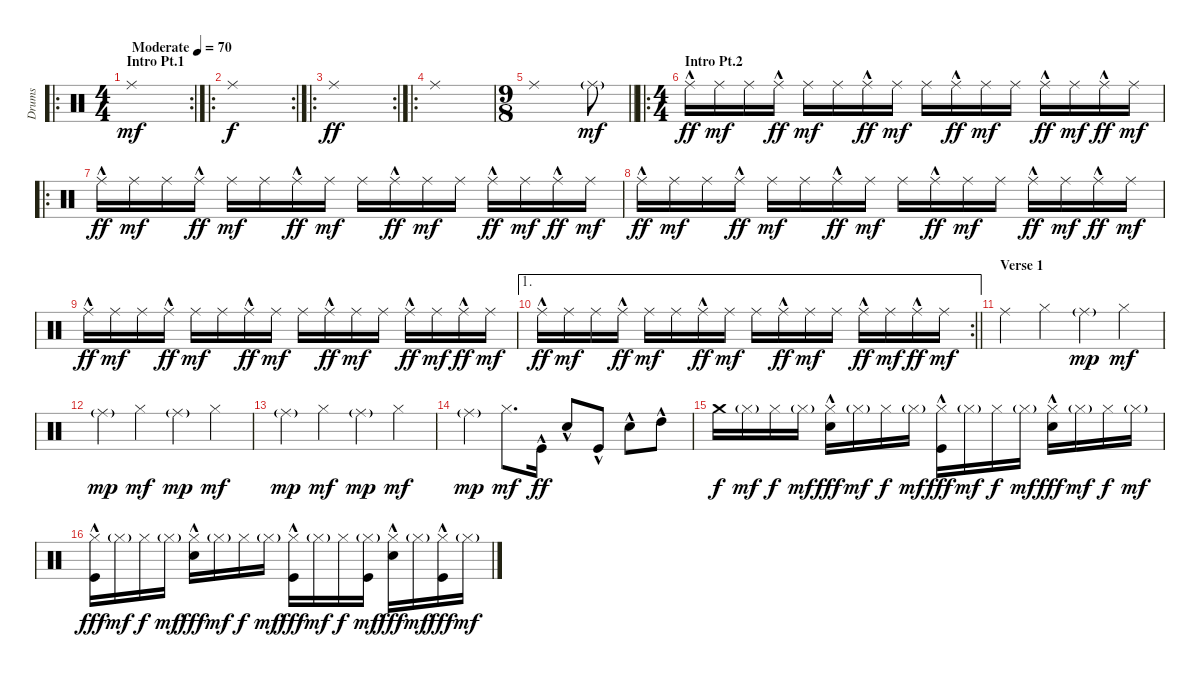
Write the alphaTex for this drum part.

\track ("Drums" "Drums") {instrument percussion}
\staff {score}
\articulation defaults
\ro
\rc 2
\ts (4 4)
\section ("" "Intro Pt.1")
\tempo (70 "Moderate")
\clef neutral
\ks c "Ride (middle)".1{dy mf}
|
\ro
\rc 2 "Ride (middle)".1{dy f}
|
\ro
\rc 2 "Ride (middle)".1{dy ff}
|
\ro "Ride (middle)".1
|
\ts (9 8)
\barLineRight lightlight "Ride (middle)".1 "Ride (middle)"{g}.8{dy mf}
|
\ro
\ts (4 4)
\section ("" "Intro Pt.2")
"Ride (middle)"{hac}.16{dy ff} "Ride (middle)".16{dy mf} "Ride (middle)".16 "Ride (middle)"{hac}.16{dy ff} "Ride (middle)".16{dy mf} "Ride (middle)".16 "Ride (middle)"{hac}.16{dy ff} "Ride (middle)".16{dy mf} "Ride (middle)".16 "Ride (middle)"{hac}.16{dy ff} "Ride (middle)".16{dy mf} "Ride (middle)".16 "Ride (middle)"{hac}.16{dy ff} "Ride (middle)".16{dy mf} "Ride (middle)"{hac}.16{dy ff} "Ride (middle)".16{dy mf} |
\ro "Ride (middle)"{hac}.16{dy ff} "Ride (middle)".16{dy mf} "Ride (middle)".16 "Ride (middle)"{hac}.16{dy ff} "Ride (middle)".16{dy mf} "Ride (middle)".16 "Ride (middle)"{hac}.16{dy ff} "Ride (middle)".16{dy mf} "Ride (middle)".16 "Ride (middle)"{hac}.16{dy ff} "Ride (middle)".16{dy mf} "Ride (middle)".16 "Ride (middle)"{hac}.16{dy ff} "Ride (middle)".16{dy mf} "Ride (middle)"{hac}.16{dy ff} "Ride (middle)".16{dy mf}
|
"Ride (middle)"{hac}.16{dy ff} "Ride (middle)".16{dy mf} "Ride (middle)".16 "Ride (middle)"{hac}.16{dy ff} "Ride (middle)".16{dy mf} "Ride (middle)".16 "Ride (middle)"{hac}.16{dy ff} "Ride (middle)".16{dy mf} "Ride (middle)".16 "Ride (middle)"{hac}.16{dy ff} "Ride (middle)".16{dy mf} "Ride (middle)".16 "Ride (middle)"{hac}.16{dy ff} "Ride (middle)".16{dy mf} "Ride (middle)"{hac}.16{dy ff} "Ride (middle)".16{dy mf} |
"Ride (middle)"{hac}.16{dy ff} "Ride (middle)".16{dy mf} "Ride (middle)".16 "Ride (middle)"{hac}.16{dy ff} "Ride (middle)".16{dy mf} "Ride (middle)".16 "Ride (middle)"{hac}.16{dy ff} "Ride (middle)".16{dy mf} "Ride (middle)".16 "Ride (middle)"{hac}.16{dy ff} "Ride (middle)".16{dy mf} "Ride (middle)".16 "Ride (middle)"{hac}.16{dy ff} "Ride (middle)".16{dy mf} "Ride (middle)"{hac}.16{dy ff} "Ride (middle)".16{dy mf} |
\ae 1
\rc 2
\barLineRight lightlight "Ride (middle)"{hac}.16{dy ff} "Ride (middle)".16{dy mf} "Ride (middle)".16 "Ride (middle)"{hac}.16{dy ff} "Ride (middle)".16{dy mf} "Ride (middle)".16 "Ride (middle)"{hac}.16{dy ff} "Ride (middle)".16{dy mf} "Ride (middle)".16 "Ride (middle)"{hac}.16{dy ff} "Ride (middle)".16{dy mf} "Ride (middle)".16 "Ride (middle)"{hac}.16{dy ff} "Ride (middle)".16{dy mf} "Ride (middle)"{hac}.16{dy ff} "Ride (middle)".16{dy mf}
|
\section ("" "Verse 1")
"Ride (middle)".4 "Hi-Hat (closed)".4 "Ride (middle)"{g}.4{dy mp} "Hi-Hat (closed)".4{dy mf} |
"Ride (middle)"{g}.4{dy mp} "Hi-Hat (closed)".4{dy mf} "Ride (middle)"{g}.4{dy mp} "Hi-Hat (closed)".4{dy mf} |
"Ride (middle)"{g}.4{dy mp} "Hi-Hat (closed)".4{dy mf} "Ride (middle)"{g}.4{dy mp} "Hi-Hat (closed)".4{dy mf} |
"Ride (middle)"{g}.4{dy mp} "Hi-Hat (closed)".8{d dy mf} "Kick (hit)"{hac}.16{dy ff volume 16} "Electric Snare (hit)"{hac}.8 "Kick (hit)"{hac}.8 "Electric Snare (hit)"{hac}.8 "High Tom (hit)"{hac}.8 |
"Crash medium (hit)".16{dy f volume 14} "Hi-Hat (closed)"{g}.16{dy mf} "Hi-Hat (closed)".16{dy f} "Hi-Hat (closed)"{g}.16{dy mf} ("Hi-Hat (closed)"{hac} "Electric Snare (hit)").16{dy fff} "Hi-Hat (closed)"{g}.16{dy mf} "Hi-Hat (closed)".16{dy f} "Hi-Hat (closed)"{g}.16{dy mf} ("Hi-Hat (closed)"{hac} "Kick (hit)").16{dy fff} "Hi-Hat (closed)"{g}.16{dy mf} "Hi-Hat (closed)".16{dy f} "Hi-Hat (closed)"{g}.16{dy mf} ("Hi-Hat (closed)"{hac} "Electric Snare (hit)").16{dy fff} "Hi-Hat (closed)"{g}.16{dy mf} "Hi-Hat (closed)".16{dy f} "Hi-Hat (closed)"{g}.16{dy mf} |
("Hi-Hat (closed)"{hac} "Kick (hit)").16{dy fff} "Hi-Hat (closed)"{g}.16{dy mf} "Hi-Hat (closed)".16{dy f} "Hi-Hat (closed)"{g}.16{dy mf} ("Hi-Hat (closed)"{hac} "Electric Snare (hit)").16{dy fff} "Hi-Hat (closed)"{g}.16{dy mf} "Hi-Hat (closed)".16{dy f} "Hi-Hat (closed)"{g}.16{dy mf} ("Hi-Hat (closed)"{hac} "Kick (hit)").16{dy fff} "Hi-Hat (closed)"{g}.16{dy mf} "Hi-Hat (closed)".16{dy f} ("Hi-Hat (closed)"{g} "Kick (hit)").16{dy mf} ("Hi-Hat (closed)"{hac} "Electric Snare (hit)").16{dy fff} "Hi-Hat (closed)"{g}.16{dy mf} ("Hi-Hat (closed)"{hac} "Kick (hit)").16{dy fff} "Hi-Hat (closed)"{g}.16{dy mf}
